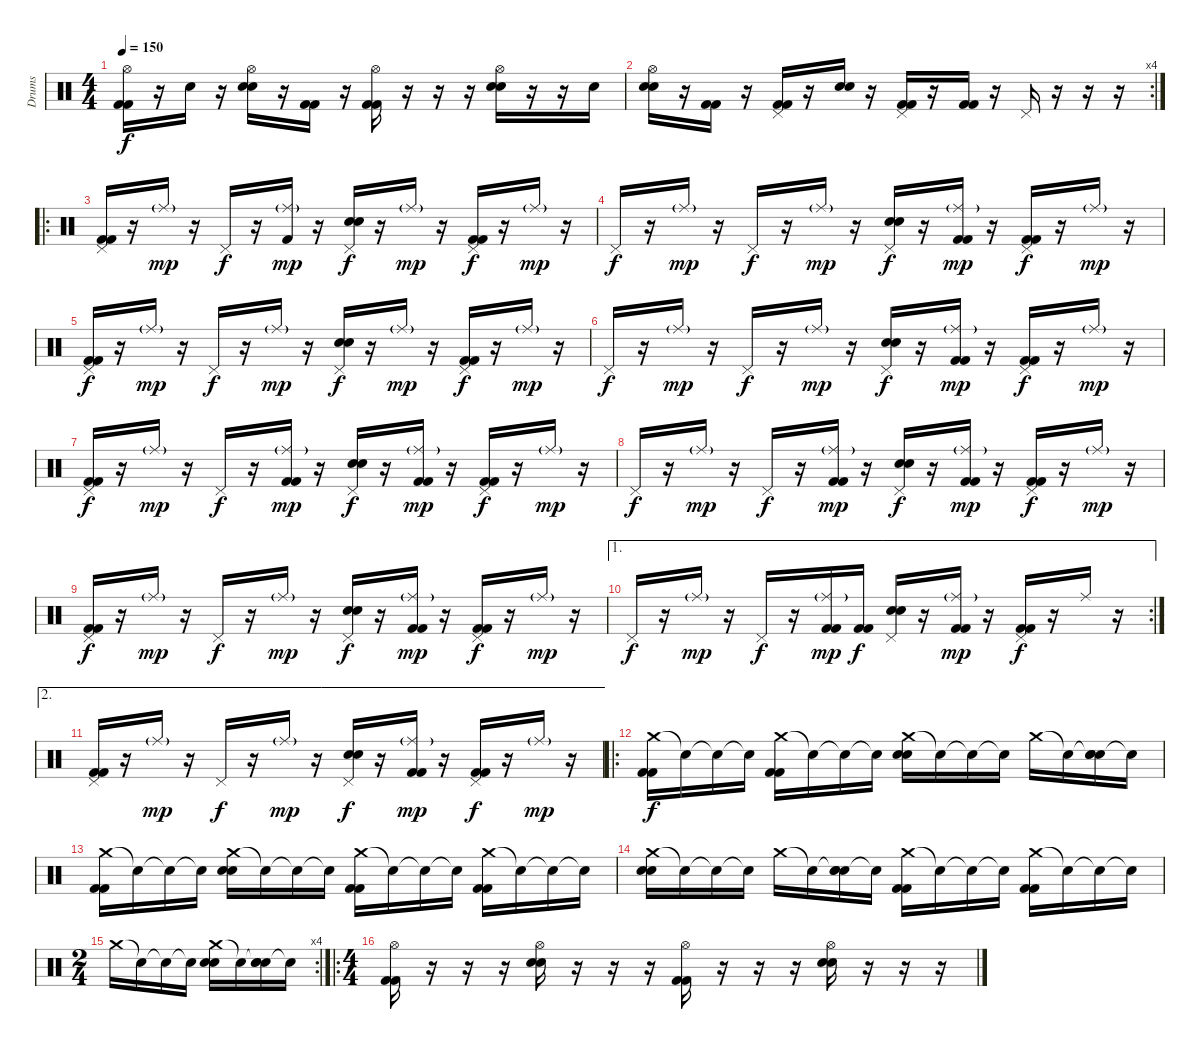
\track ("Drums" "Drums") {instrument percussion}
\staff {score}
\articulation defaults
\ts (4 4)
\tempo 150
\clef neutral
\ks c
("Hi-Hat (open)" "Kick (hit) 2" "Kick (hit) 2").16{dy f} r.16 "Electric Snare (hit)".16 r.16 ("Hi-Hat (open)" "Electric Snare (hit)" "Electric Snare (hit)").16 r.16 ("Kick (hit) 2" "Kick (hit) 2").16 r.16 ("Hi-Hat (open)" "Kick (hit) 2" "Kick (hit) 2").16 r.16 r.16 r.16 ("Hi-Hat (open)" "Electric Snare (hit)" "Electric Snare (hit)").16 r.16 r.16 "Electric Snare (hit)".16 |
\rc 4
("Hi-Hat (open)" "Electric Snare (hit)" "Electric Snare (hit)").16 r.16 ("Kick (hit) 2" "Kick (hit) 2").16 r.16 ("Pedal Hi-Hat (hit)" "Kick (hit) 2" "Kick (hit) 2").16 r.16 ("Electric Snare (hit)" "Electric Snare (hit)").16 r.16 ("Pedal Hi-Hat (hit)" "Kick (hit) 2" "Kick (hit) 2").16 r.16 ("Kick (hit) 2" "Kick (hit) 2").16 r.16 "Pedal Hi-Hat (hit)".16 r.16 r.16 r.16 |
\ro
("Pedal Hi-Hat (hit)" "Kick (hit) 2" "Kick (hit) 2").16 r.16 "Ride (middle)"{g}.16{dy mp} r.16 "Pedal Hi-Hat (hit)".16{dy f} r.16 ("Ride (middle)"{g} "Kick (hit) 2").16{dy mp} r.16 ("Pedal Hi-Hat (hit)" "Electric Snare (hit)" "Electric Snare (hit)").16{dy f} r.16 "Ride (middle)"{g}.16{dy mp} r.16 ("Pedal Hi-Hat (hit)" "Kick (hit) 2" "Kick (hit) 2").16{dy f} r.16 "Ride (middle)"{g}.16{dy mp} r.16 |
"Pedal Hi-Hat (hit)".16{dy f} r.16 "Ride (middle)"{g}.16{dy mp} r.16 "Pedal Hi-Hat (hit)".16{dy f} r.16 "Ride (middle)"{g}.16{dy mp} r.16 ("Pedal Hi-Hat (hit)" "Electric Snare (hit)" "Electric Snare (hit)").16{dy f} r.16 ("Ride (middle)"{g} "Kick (hit) 2" "Kick (hit) 2").16{dy mp} r.16 ("Pedal Hi-Hat (hit)" "Kick (hit) 2" "Kick (hit) 2").16{dy f} r.16 "Ride (middle)"{g}.16{dy mp} r.16 |
("Pedal Hi-Hat (hit)" "Kick (hit) 2" "Kick (hit) 2").16{dy f} r.16 "Ride (middle)"{g}.16{dy mp} r.16 "Pedal Hi-Hat (hit)".16{dy f} r.16 "Ride (middle)"{g}.16{dy mp} r.16 ("Pedal Hi-Hat (hit)" "Electric Snare (hit)" "Electric Snare (hit)").16{dy f} r.16 "Ride (middle)"{g}.16{dy mp} r.16 ("Pedal Hi-Hat (hit)" "Kick (hit) 2" "Kick (hit) 2").16{dy f} r.16 "Ride (middle)"{g}.16{dy mp} r.16 |
"Pedal Hi-Hat (hit)".16{dy f} r.16 "Ride (middle)"{g}.16{dy mp} r.16 "Pedal Hi-Hat (hit)".16{dy f} r.16 "Ride (middle)"{g}.16{dy mp} r.16 ("Pedal Hi-Hat (hit)" "Electric Snare (hit)" "Electric Snare (hit)").16{dy f} r.16 ("Ride (middle)"{g} "Kick (hit) 2" "Kick (hit) 2").16{dy mp} r.16 ("Pedal Hi-Hat (hit)" "Kick (hit) 2" "Kick (hit) 2").16{dy f} r.16 "Ride (middle)"{g}.16{dy mp} r.16 |
("Pedal Hi-Hat (hit)" "Kick (hit) 2" "Kick (hit) 2").16{dy f} r.16 "Ride (middle)"{g}.16{dy mp} r.16 "Pedal Hi-Hat (hit)".16{dy f} r.16 ("Ride (middle)"{g} "Kick (hit) 2" "Kick (hit) 2").16{dy mp} r.16 ("Pedal Hi-Hat (hit)" "Electric Snare (hit)" "Electric Snare (hit)").16{dy f} r.16 ("Ride (middle)"{g} "Kick (hit) 2" "Kick (hit) 2").16{dy mp} r.16 ("Pedal Hi-Hat (hit)" "Kick (hit) 2" "Kick (hit) 2").16{dy f} r.16 "Ride (middle)"{g}.16{dy mp} r.16 |
"Pedal Hi-Hat (hit)".16{dy f} r.16 "Ride (middle)"{g}.16{dy mp} r.16 "Pedal Hi-Hat (hit)".16{dy f} r.16 ("Ride (middle)"{g} "Kick (hit) 2" "Kick (hit) 2").16{dy mp} r.16 ("Pedal Hi-Hat (hit)" "Electric Snare (hit)" "Electric Snare (hit)").16{dy f} r.16 ("Ride (middle)"{g} "Kick (hit) 2" "Kick (hit) 2").16{dy mp} r.16 ("Pedal Hi-Hat (hit)" "Kick (hit) 2" "Kick (hit) 2").16{dy f} r.16 "Ride (middle)"{g}.16{dy mp} r.16 |
("Pedal Hi-Hat (hit)" "Kick (hit) 2" "Kick (hit) 2").16{dy f} r.16 "Ride (middle)"{g}.16{dy mp} r.16 "Pedal Hi-Hat (hit)".16{dy f} r.16 "Ride (middle)"{g}.16{dy mp} r.16 ("Pedal Hi-Hat (hit)" "Electric Snare (hit)" "Electric Snare (hit)").16{dy f} r.16 ("Ride (middle)"{g} "Kick (hit) 2" "Kick (hit) 2").16{dy mp} r.16 ("Pedal Hi-Hat (hit)" "Kick (hit) 2" "Kick (hit) 2").16{dy f} r.16 "Ride (middle)"{g}.16{dy mp} r.16 |
\ae 1
\rc 2 "Pedal Hi-Hat (hit)".16{dy f}
r.16 "Ride (middle)"{g}.16{dy mp} r.16 "Pedal Hi-Hat (hit)".16{dy f} r.16 ("Ride (middle)"{g} "Kick (hit) 2" "Kick (hit) 2").16{dy mp} ("Kick (hit) 2" "Kick (hit) 2").16{dy f} ("Pedal Hi-Hat (hit)" "Electric Snare (hit)" "Electric Snare (hit)").16 r.16 ("Ride (middle)"{g} "Kick (hit) 2" "Kick (hit) 2").16{dy mp} r.16 ("Pedal Hi-Hat (hit)" "Kick (hit) 2" "Kick (hit) 2").16{dy f} r.16 "Ride (middle)".16 r.16 |
\ae 2
("Pedal Hi-Hat (hit)" "Kick (hit) 2" "Kick (hit) 2").16 r.16 "Ride (middle)"{g}.16{dy mp} r.16 "Pedal Hi-Hat (hit)".16{dy f} r.16 "Ride (middle)"{g}.16{dy mp} r.16 ("Pedal Hi-Hat (hit)" "Electric Snare (hit)" "Electric Snare (hit)").16{dy f} r.16 ("Ride (middle)"{g} "Kick (hit) 2" "Kick (hit) 2").16{dy mp} r.16 ("Pedal Hi-Hat (hit)" "Kick (hit) 2" "Kick (hit) 2").16{dy f} r.16 "Ride (middle)"{g}.16{dy mp} r.16 |
\ro
("Crash medium (hit)" "Kick (hit) 2" "Kick (hit) 2").16{dy f} "Snare (hit)"{t}.16 "Snare (hit)"{t}.16 "Snare (hit)"{t}.16 ("Crash medium (hit)" "Kick (hit) 2" "Kick (hit) 2").16 "Snare (hit)"{t}.16 "Snare (hit)"{t}.16 "Snare (hit)"{t}.16 ("Crash medium (hit)" "Electric Snare (hit)" "Electric Snare (hit)").16 "Snare (hit)"{t}.16 "Snare (hit)"{t}.16 "Snare (hit)"{t}.16 "Crash medium (hit)".16 "Snare (hit)"{t}.16 ("Snare (hit)"{t} "Electric Snare (hit)" "Electric Snare (hit)").16 "Snare (hit)"{t}.16 |
("Crash medium (hit)" "Kick (hit) 2" "Kick (hit) 2").16 "Snare (hit)"{t}.16 "Snare (hit)"{t}.16 "Snare (hit)"{t}.16 ("Crash medium (hit)" "Electric Snare (hit)" "Electric Snare (hit)").16 "Snare (hit)"{t}.16 "Snare (hit)"{t}.16 "Snare (hit)"{t}.16 ("Crash medium (hit)" "Kick (hit) 2" "Kick (hit) 2").16 "Snare (hit)"{t}.16 "Snare (hit)"{t}.16 "Snare (hit)"{t}.16 ("Crash medium (hit)" "Kick (hit) 2" "Kick (hit) 2").16 "Snare (hit)"{t}.16 "Snare (hit)"{t}.16 "Snare (hit)"{t}.16 |
("Crash medium (hit)" "Electric Snare (hit)" "Electric Snare (hit)").16 "Snare (hit)"{t}.16 "Snare (hit)"{t}.16 "Snare (hit)"{t}.16 "Crash medium (hit)".16 "Snare (hit)"{t}.16 ("Snare (hit)"{t} "Electric Snare (hit)" "Electric Snare (hit)").16 "Snare (hit)"{t}.16 ("Crash medium (hit)" "Kick (hit) 2" "Kick (hit) 2").16 "Snare (hit)"{t}.16 "Snare (hit)"{t}.16 "Snare (hit)"{t}.16 ("Crash medium (hit)" "Kick (hit) 2" "Kick (hit) 2").16 "Snare (hit)"{t}.16 "Snare (hit)"{t}.16 "Snare (hit)"{t}.16 |
\rc 4
\ts (2 4)
"Crash medium (hit)".16 "Snare (hit)"{t}.16 "Snare (hit)"{t}.16 "Snare (hit)"{t}.16 ("Crash medium (hit)" "Electric Snare (hit)" "Electric Snare (hit)").16 "Snare (hit)"{t}.16 ("Snare (hit)"{t} "Electric Snare (hit)" "Electric Snare (hit)").16 "Snare (hit)"{t}.16 |
\ro
\ts (4 4)
("Hi-Hat (open)" "Kick (hit) 2" "Kick (hit) 2").16 r.16 r.16 r.16 ("Hi-Hat (open)" "Electric Snare (hit)" "Electric Snare (hit)").16 r.16 r.16 r.16 ("Hi-Hat (open)" "Kick (hit) 2" "Kick (hit) 2").16 r.16 r.16 r.16 ("Hi-Hat (open)" "Electric Snare (hit)" "Electric Snare (hit)").16 r.16 r.16 r.16
